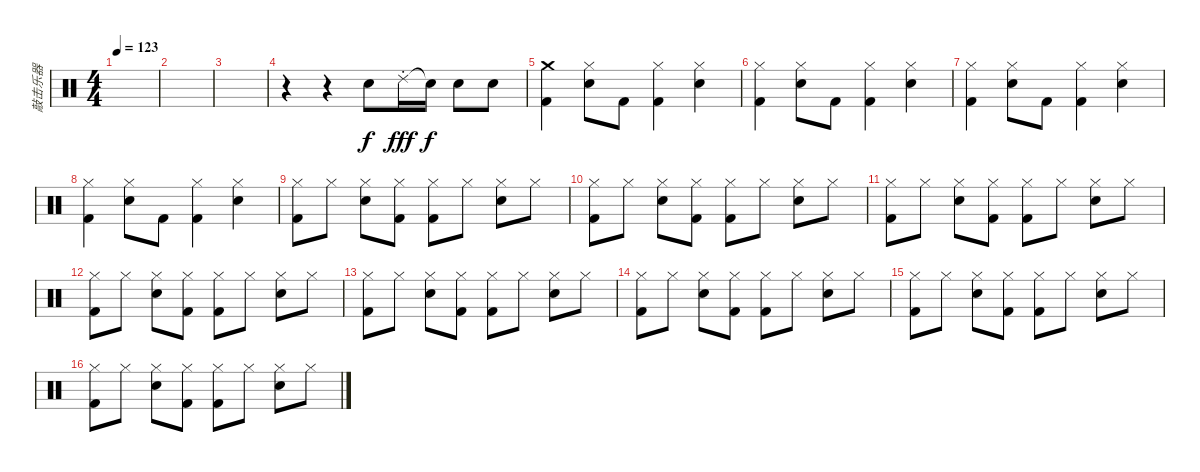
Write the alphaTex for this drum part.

\track ("敲击乐器" "敲击乐器") {instrument percussion}
\staff {score}
\articulation defaults
\ts (4 4)
\tempo 123
\clef neutral
\ks c
|
|
|
r.4 r.4 "Electric Snare (hit)".8 "Ride (choke) 2".16{dy fff} "Electric Snare (hit)"{t}.16{dy f} "Electric Snare (hit)".8 "Electric Snare (hit)".8 |
("Crash medium (hit)" "Kick (hit) 2").4 ("Hi-Hat (closed)" "Electric Snare (hit)").8 "Kick (hit) 2".8 ("Hi-Hat (closed)" "Kick (hit) 2").4 ("Hi-Hat (closed)" "Electric Snare (hit)").4 |
("Hi-Hat (closed)" "Kick (hit) 2").4 ("Hi-Hat (closed)" "Electric Snare (hit)").8 "Kick (hit) 2".8 ("Hi-Hat (closed)" "Kick (hit) 2").4 ("Hi-Hat (closed)" "Electric Snare (hit)").4 |
("Hi-Hat (closed)" "Kick (hit) 2").4 ("Hi-Hat (closed)" "Electric Snare (hit)").8 "Kick (hit) 2".8 ("Hi-Hat (closed)" "Kick (hit) 2").4 ("Hi-Hat (closed)" "Electric Snare (hit)").4 |
("Hi-Hat (closed)" "Kick (hit) 2").4 ("Hi-Hat (closed)" "Electric Snare (hit)").8 "Kick (hit) 2".8 ("Hi-Hat (closed)" "Kick (hit) 2").4 ("Hi-Hat (closed)" "Electric Snare (hit)").4 |
("Hi-Hat (closed)" "Kick (hit) 2").8 "Hi-Hat (closed)".8 ("Hi-Hat (closed)" "Electric Snare (hit)").8 ("Hi-Hat (closed)" "Kick (hit) 2").8 ("Hi-Hat (closed)" "Kick (hit) 2").8 "Hi-Hat (closed)".8 ("Hi-Hat (closed)" "Electric Snare (hit)").8 "Hi-Hat (closed)".8 |
("Hi-Hat (closed)" "Kick (hit) 2").8 "Hi-Hat (closed)".8 ("Hi-Hat (closed)" "Electric Snare (hit)").8 ("Hi-Hat (closed)" "Kick (hit) 2").8 ("Hi-Hat (closed)" "Kick (hit) 2").8 "Hi-Hat (closed)".8 ("Hi-Hat (closed)" "Electric Snare (hit)").8 "Hi-Hat (closed)".8 |
("Hi-Hat (closed)" "Kick (hit) 2").8 "Hi-Hat (closed)".8 ("Hi-Hat (closed)" "Electric Snare (hit)").8 ("Hi-Hat (closed)" "Kick (hit) 2").8 ("Hi-Hat (closed)" "Kick (hit) 2").8 "Hi-Hat (closed)".8 ("Hi-Hat (closed)" "Electric Snare (hit)").8 "Hi-Hat (closed)".8 |
("Hi-Hat (closed)" "Kick (hit) 2").8 "Hi-Hat (closed)".8 ("Hi-Hat (closed)" "Electric Snare (hit)").8 ("Hi-Hat (closed)" "Kick (hit) 2").8 ("Hi-Hat (closed)" "Kick (hit) 2").8 "Hi-Hat (closed)".8 ("Hi-Hat (closed)" "Electric Snare (hit)").8 "Hi-Hat (closed)".8 |
("Hi-Hat (closed)" "Kick (hit) 2").8 "Hi-Hat (closed)".8 ("Hi-Hat (closed)" "Electric Snare (hit)").8 ("Hi-Hat (closed)" "Kick (hit) 2").8 ("Hi-Hat (closed)" "Kick (hit) 2").8 "Hi-Hat (closed)".8 ("Hi-Hat (closed)" "Electric Snare (hit)").8 "Hi-Hat (closed)".8 |
("Hi-Hat (closed)" "Kick (hit) 2").8 "Hi-Hat (closed)".8 ("Hi-Hat (closed)" "Electric Snare (hit)").8 ("Hi-Hat (closed)" "Kick (hit) 2").8 ("Hi-Hat (closed)" "Kick (hit) 2").8 "Hi-Hat (closed)".8 ("Hi-Hat (closed)" "Electric Snare (hit)").8 "Hi-Hat (closed)".8 |
("Hi-Hat (closed)" "Kick (hit) 2").8 "Hi-Hat (closed)".8 ("Hi-Hat (closed)" "Electric Snare (hit)").8 ("Hi-Hat (closed)" "Kick (hit) 2").8 ("Hi-Hat (closed)" "Kick (hit) 2").8 "Hi-Hat (closed)".8 ("Hi-Hat (closed)" "Electric Snare (hit)").8 "Hi-Hat (closed)".8 |
("Hi-Hat (closed)" "Kick (hit) 2").8 "Hi-Hat (closed)".8 ("Hi-Hat (closed)" "Electric Snare (hit)").8 ("Hi-Hat (closed)" "Kick (hit) 2").8 ("Hi-Hat (closed)" "Kick (hit) 2").8 "Hi-Hat (closed)".8 ("Hi-Hat (closed)" "Electric Snare (hit)").8 "Hi-Hat (closed)".8
